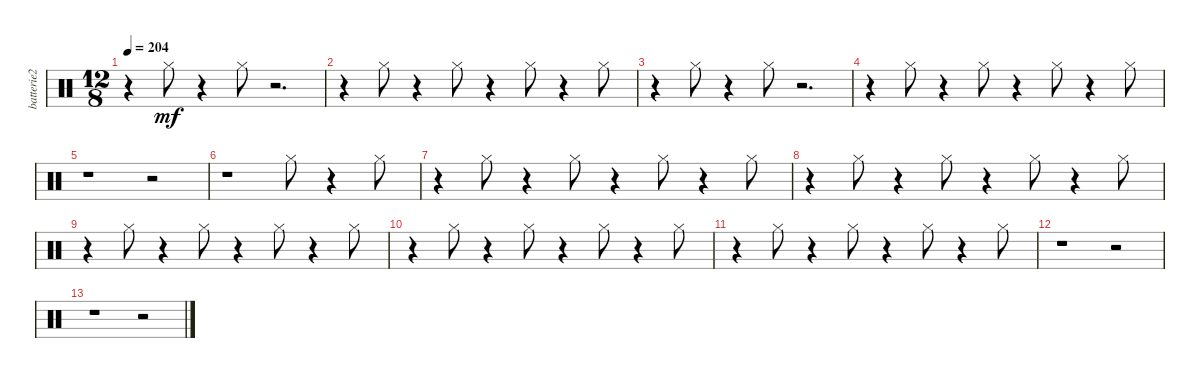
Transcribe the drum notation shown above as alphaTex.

\track ("batterie2" "batterie2") {instrument percussion}
\staff {score}
\articulation defaults
\ts (12 8)
\tempo 204
\clef neutral
\ks c
r.4{dy mf} "Hi-Hat (closed)".8 r.4 "Hi-Hat (closed)".8 r.2{d} |
r.4 "Hi-Hat (closed)".8 r.4 "Hi-Hat (closed)".8 r.4 "Hi-Hat (closed)".8 r.4 "Hi-Hat (closed)".8 |
r.4 "Hi-Hat (closed)".8 r.4 "Hi-Hat (closed)".8 r.2{d} |
r.4 "Hi-Hat (closed)".8 r.4 "Hi-Hat (closed)".8 r.4 "Hi-Hat (closed)".8 r.4 "Hi-Hat (closed)".8 |
r.1 r.2 |
r.1 "Hi-Hat (closed)".8 r.4 "Hi-Hat (closed)".8 |
r.4 "Hi-Hat (closed)".8 r.4 "Hi-Hat (closed)".8 r.4 "Hi-Hat (closed)".8 r.4 "Hi-Hat (closed)".8 |
r.4 "Hi-Hat (closed)".8 r.4 "Hi-Hat (closed)".8 r.4 "Hi-Hat (closed)".8 r.4 "Hi-Hat (closed)".8 |
r.4 "Hi-Hat (closed)".8 r.4 "Hi-Hat (closed)".8 r.4 "Hi-Hat (closed)".8 r.4 "Hi-Hat (closed)".8 |
r.4 "Hi-Hat (closed)".8 r.4 "Hi-Hat (closed)".8 r.4 "Hi-Hat (closed)".8 r.4 "Hi-Hat (closed)".8 |
r.4 "Hi-Hat (closed)".8 r.4 "Hi-Hat (closed)".8 r.4 "Hi-Hat (closed)".8 r.4 "Hi-Hat (closed)".8 |
r.1 r.2 |
r.1 r.2
